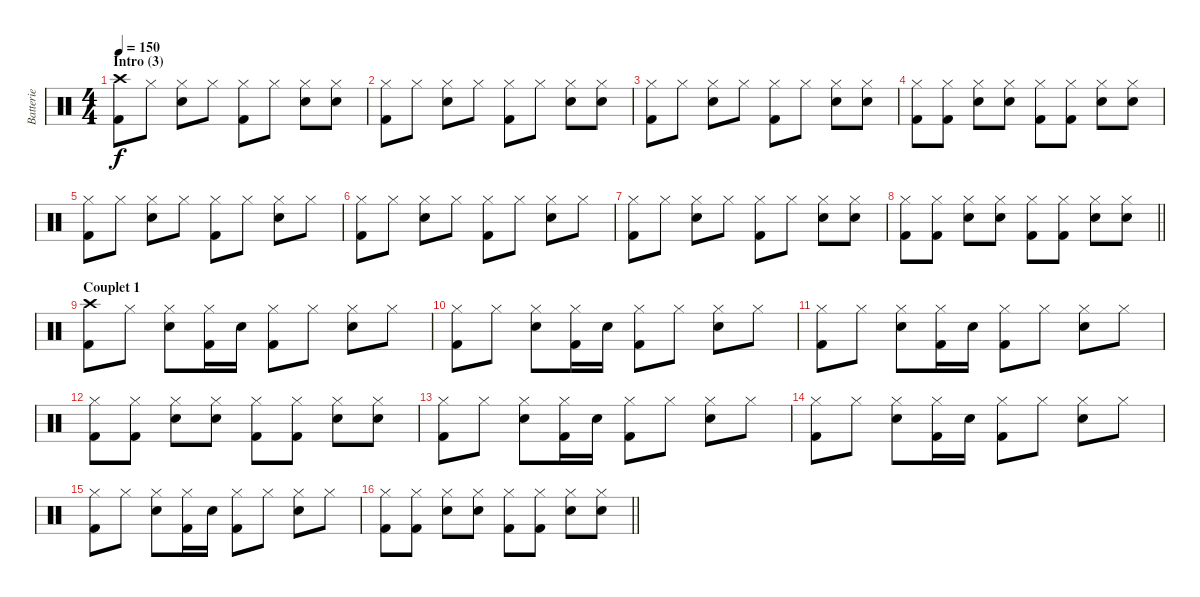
\track ("Batterie" "Batterie") {instrument percussion}
\staff {score}
\articulation defaults
\ts (4 4)
\section ("" "Intro (3)")
\tempo 150
\clef neutral
\ks c
("Crash high (hit)" "Kick (hit) 2").8{dy f} "Hi-Hat (closed)".8 ("Hi-Hat (closed)" "Electric Snare (hit)").8 "Hi-Hat (closed)".8 ("Hi-Hat (closed)" "Kick (hit) 2").8 "Hi-Hat (closed)".8 ("Hi-Hat (closed)" "Electric Snare (hit)").8 ("Hi-Hat (closed)" "Electric Snare (hit)").8 |
("Hi-Hat (closed)" "Kick (hit) 2").8 "Hi-Hat (closed)".8 ("Hi-Hat (closed)" "Electric Snare (hit)").8 "Hi-Hat (closed)".8 ("Hi-Hat (closed)" "Kick (hit) 2").8 "Hi-Hat (closed)".8 ("Hi-Hat (closed)" "Electric Snare (hit)").8 ("Hi-Hat (closed)" "Electric Snare (hit)").8 |
("Hi-Hat (closed)" "Kick (hit) 2").8 "Hi-Hat (closed)".8 ("Hi-Hat (closed)" "Electric Snare (hit)").8 "Hi-Hat (closed)".8 ("Hi-Hat (closed)" "Kick (hit) 2").8 "Hi-Hat (closed)".8 ("Hi-Hat (closed)" "Electric Snare (hit)").8 ("Hi-Hat (closed)" "Electric Snare (hit)").8 |
("Hi-Hat (closed)" "Kick (hit) 2").8 ("Hi-Hat (closed)" "Kick (hit) 2").8 ("Hi-Hat (closed)" "Electric Snare (hit)").8 ("Hi-Hat (closed)" "Electric Snare (hit)").8 ("Hi-Hat (closed)" "Kick (hit) 2").8 ("Hi-Hat (closed)" "Kick (hit) 2").8 ("Hi-Hat (closed)" "Electric Snare (hit)").8 ("Hi-Hat (closed)" "Electric Snare (hit)").8 |
("Hi-Hat (closed)" "Kick (hit) 2").8 "Hi-Hat (closed)".8 ("Hi-Hat (closed)" "Electric Snare (hit)").8 "Hi-Hat (closed)".8 ("Hi-Hat (closed)" "Kick (hit) 2").8 "Hi-Hat (closed)".8 ("Hi-Hat (closed)" "Electric Snare (hit)").8 "Hi-Hat (closed)".8 |
("Hi-Hat (closed)" "Kick (hit) 2").8 "Hi-Hat (closed)".8 ("Hi-Hat (closed)" "Electric Snare (hit)").8 "Hi-Hat (closed)".8 ("Hi-Hat (closed)" "Kick (hit) 2").8 "Hi-Hat (closed)".8 ("Hi-Hat (closed)" "Electric Snare (hit)").8 "Hi-Hat (closed)".8 |
("Hi-Hat (closed)" "Kick (hit) 2").8 "Hi-Hat (closed)".8 ("Hi-Hat (closed)" "Electric Snare (hit)").8 "Hi-Hat (closed)".8 ("Hi-Hat (closed)" "Kick (hit) 2").8 "Hi-Hat (closed)".8 ("Hi-Hat (closed)" "Electric Snare (hit)").8 ("Hi-Hat (closed)" "Electric Snare (hit)").8 |
\barLineRight lightlight
("Hi-Hat (closed)" "Kick (hit) 2").8 ("Hi-Hat (closed)" "Kick (hit) 2").8 ("Hi-Hat (closed)" "Electric Snare (hit)").8 ("Hi-Hat (closed)" "Electric Snare (hit)").8 ("Hi-Hat (closed)" "Kick (hit) 2").8 ("Hi-Hat (closed)" "Kick (hit) 2").8 ("Hi-Hat (closed)" "Electric Snare (hit)").8 ("Hi-Hat (closed)" "Electric Snare (hit)").8 |
\section ("" "Couplet 1")
("Crash high (hit)" "Kick (hit) 2").8 "Hi-Hat (closed)".8 ("Hi-Hat (closed)" "Electric Snare (hit)").8 ("Hi-Hat (closed)" "Kick (hit) 2").16 "Electric Snare (hit)".16 ("Hi-Hat (closed)" "Kick (hit) 2").8 "Hi-Hat (closed)".8 ("Hi-Hat (closed)" "Electric Snare (hit)").8 "Hi-Hat (closed)".8 |
("Hi-Hat (closed)" "Kick (hit) 2").8 "Hi-Hat (closed)".8 ("Hi-Hat (closed)" "Electric Snare (hit)").8 ("Hi-Hat (closed)" "Kick (hit) 2").16 "Electric Snare (hit)".16 ("Hi-Hat (closed)" "Kick (hit) 2").8 "Hi-Hat (closed)".8 ("Hi-Hat (closed)" "Electric Snare (hit)").8 "Hi-Hat (closed)".8 |
("Hi-Hat (closed)" "Kick (hit) 2").8 "Hi-Hat (closed)".8 ("Hi-Hat (closed)" "Electric Snare (hit)").8 ("Hi-Hat (closed)" "Kick (hit) 2").16 "Electric Snare (hit)".16 ("Hi-Hat (closed)" "Kick (hit) 2").8 "Hi-Hat (closed)".8 ("Hi-Hat (closed)" "Electric Snare (hit)").8 "Hi-Hat (closed)".8 |
("Hi-Hat (closed)" "Kick (hit) 2").8 ("Hi-Hat (closed)" "Kick (hit) 2").8 ("Hi-Hat (closed)" "Electric Snare (hit)").8 ("Hi-Hat (closed)" "Electric Snare (hit)").8 ("Hi-Hat (closed)" "Kick (hit) 2").8 ("Hi-Hat (closed)" "Kick (hit) 2").8 ("Hi-Hat (closed)" "Electric Snare (hit)").8 ("Hi-Hat (closed)" "Electric Snare (hit)").8 |
("Hi-Hat (closed)" "Kick (hit) 2").8 "Hi-Hat (closed)".8 ("Hi-Hat (closed)" "Electric Snare (hit)").8 ("Hi-Hat (closed)" "Kick (hit) 2").16 "Electric Snare (hit)".16 ("Hi-Hat (closed)" "Kick (hit) 2").8 "Hi-Hat (closed)".8 ("Hi-Hat (closed)" "Electric Snare (hit)").8 "Hi-Hat (closed)".8 |
("Hi-Hat (closed)" "Kick (hit) 2").8 "Hi-Hat (closed)".8 ("Hi-Hat (closed)" "Electric Snare (hit)").8 ("Hi-Hat (closed)" "Kick (hit) 2").16 "Electric Snare (hit)".16 ("Hi-Hat (closed)" "Kick (hit) 2").8 "Hi-Hat (closed)".8 ("Hi-Hat (closed)" "Electric Snare (hit)").8 "Hi-Hat (closed)".8 |
("Hi-Hat (closed)" "Kick (hit) 2").8 "Hi-Hat (closed)".8 ("Hi-Hat (closed)" "Electric Snare (hit)").8 ("Hi-Hat (closed)" "Kick (hit) 2").16 "Electric Snare (hit)".16 ("Hi-Hat (closed)" "Kick (hit) 2").8 "Hi-Hat (closed)".8 ("Hi-Hat (closed)" "Electric Snare (hit)").8 "Hi-Hat (closed)".8 |
\barLineRight lightlight
("Hi-Hat (closed)" "Kick (hit) 2").8 ("Hi-Hat (closed)" "Kick (hit) 2").8 ("Hi-Hat (closed)" "Electric Snare (hit)").8 ("Hi-Hat (closed)" "Electric Snare (hit)").8 ("Hi-Hat (closed)" "Kick (hit) 2").8 ("Hi-Hat (closed)" "Kick (hit) 2").8 ("Hi-Hat (closed)" "Electric Snare (hit)").8 ("Hi-Hat (closed)" "Electric Snare (hit)").8
